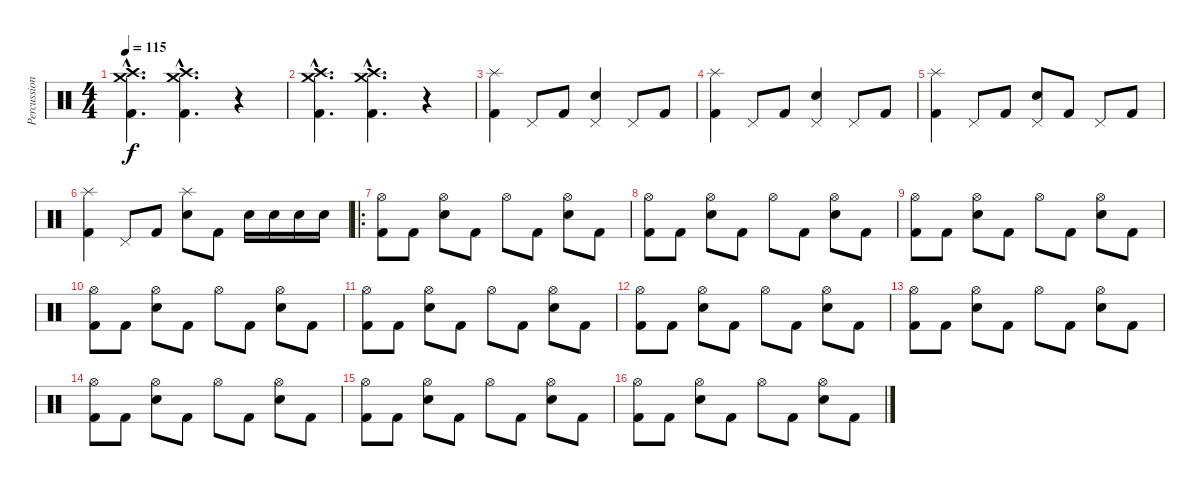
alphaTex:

\track ("Percussion" "Percussion") {instrument percussion}
\staff {score}
\articulation defaults
\ts (4 4)
\tempo 115
\clef neutral
\ks c
("Kick (hit) 2"{hac} "Crash high (hit)"{hac} "Crash medium (hit)"{hac}).4{d dy f} ("Kick (hit) 2"{hac} "Crash high (hit)"{hac} "Crash medium (hit)"{hac}).4{d} r.4 |
("Kick (hit) 2"{hac} "Crash high (hit)"{hac} "Crash medium (hit)"{hac}).4{d} ("Kick (hit) 2"{hac} "Crash high (hit)"{hac} "Crash medium (hit)"{hac}).4{d} r.4 |
("Kick (hit) 2" "Splash (hit)").4 "Pedal Hi-Hat (hit)".8 "Kick (hit) 2".8 ("Electric Snare (hit)" "Pedal Hi-Hat (hit)").4 "Pedal Hi-Hat (hit)".8 "Kick (hit) 2".8 |
("Kick (hit) 2" "Splash (hit)").4 "Pedal Hi-Hat (hit)".8 "Kick (hit) 2".8 ("Electric Snare (hit)" "Pedal Hi-Hat (hit)").4 "Pedal Hi-Hat (hit)".8 "Kick (hit) 2".8 |
("Kick (hit) 2" "Splash (hit)").4 "Pedal Hi-Hat (hit)".8 "Kick (hit) 2".8 ("Electric Snare (hit)" "Pedal Hi-Hat (hit)").8 "Kick (hit) 2".8 "Pedal Hi-Hat (hit)".8 "Kick (hit) 2".8 |
("Kick (hit) 2" "Splash (hit)").4 "Pedal Hi-Hat (hit)".8 "Kick (hit) 2".8 ("Electric Snare (hit)" "Splash (hit)").8 "Kick (hit) 2".8 "Electric Snare (hit)".16 "Electric Snare (hit)".16 "Electric Snare (hit)".16 "Electric Snare (hit)".16 |
\ro
("Hi-Hat (open)" "Kick (hit) 2").8 "Kick (hit) 2".8 ("Hi-Hat (open)" "Electric Snare (hit)").8 "Kick (hit) 2".8 "Hi-Hat (open)".8 "Kick (hit) 2".8 ("Hi-Hat (open)" "Electric Snare (hit)").8 "Kick (hit) 2".8 |
("Hi-Hat (open)" "Kick (hit) 2").8 "Kick (hit) 2".8 ("Hi-Hat (open)" "Electric Snare (hit)").8 "Kick (hit) 2".8 "Hi-Hat (open)".8 "Kick (hit) 2".8 ("Hi-Hat (open)" "Electric Snare (hit)").8 "Kick (hit) 2".8 |
("Hi-Hat (open)" "Kick (hit) 2").8 "Kick (hit) 2".8 ("Hi-Hat (open)" "Electric Snare (hit)").8 "Kick (hit) 2".8 "Hi-Hat (open)".8 "Kick (hit) 2".8 ("Hi-Hat (open)" "Electric Snare (hit)").8 "Kick (hit) 2".8 |
("Hi-Hat (open)" "Kick (hit) 2").8 "Kick (hit) 2".8 ("Hi-Hat (open)" "Electric Snare (hit)").8 "Kick (hit) 2".8 "Hi-Hat (open)".8 "Kick (hit) 2".8 ("Hi-Hat (open)" "Electric Snare (hit)").8 "Kick (hit) 2".8 |
("Hi-Hat (open)" "Kick (hit) 2").8 "Kick (hit) 2".8 ("Hi-Hat (open)" "Electric Snare (hit)").8 "Kick (hit) 2".8 "Hi-Hat (open)".8 "Kick (hit) 2".8 ("Hi-Hat (open)" "Electric Snare (hit)").8 "Kick (hit) 2".8 |
("Hi-Hat (open)" "Kick (hit) 2").8 "Kick (hit) 2".8 ("Hi-Hat (open)" "Electric Snare (hit)").8 "Kick (hit) 2".8 "Hi-Hat (open)".8 "Kick (hit) 2".8 ("Hi-Hat (open)" "Electric Snare (hit)").8 "Kick (hit) 2".8 |
("Hi-Hat (open)" "Kick (hit) 2").8 "Kick (hit) 2".8 ("Hi-Hat (open)" "Electric Snare (hit)").8 "Kick (hit) 2".8 "Hi-Hat (open)".8 "Kick (hit) 2".8 ("Hi-Hat (open)" "Electric Snare (hit)").8 "Kick (hit) 2".8 |
("Hi-Hat (open)" "Kick (hit) 2").8 "Kick (hit) 2".8 ("Hi-Hat (open)" "Electric Snare (hit)").8 "Kick (hit) 2".8 "Hi-Hat (open)".8 "Kick (hit) 2".8 ("Hi-Hat (open)" "Electric Snare (hit)").8 "Kick (hit) 2".8 |
("Hi-Hat (open)" "Kick (hit) 2").8 "Kick (hit) 2".8 ("Hi-Hat (open)" "Electric Snare (hit)").8 "Kick (hit) 2".8 "Hi-Hat (open)".8 "Kick (hit) 2".8 ("Hi-Hat (open)" "Electric Snare (hit)").8 "Kick (hit) 2".8 |
("Hi-Hat (open)" "Kick (hit) 2").8 "Kick (hit) 2".8 ("Hi-Hat (open)" "Electric Snare (hit)").8 "Kick (hit) 2".8 "Hi-Hat (open)".8 "Kick (hit) 2".8 ("Hi-Hat (open)" "Electric Snare (hit)").8 "Kick (hit) 2".8
